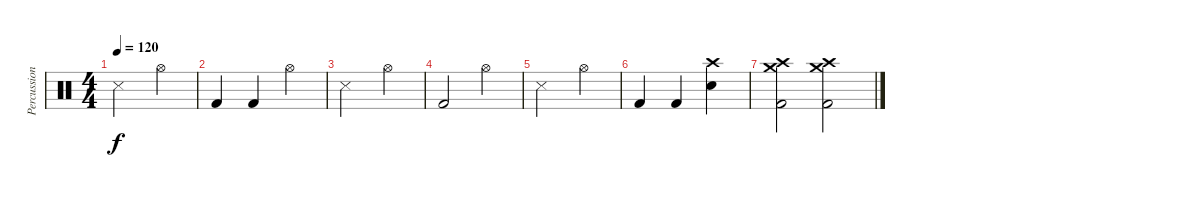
\track ("Percussion" "Percussion") {instrument percussion}
\staff {score}
\articulation defaults
\ts (4 4)
\tempo 120
\clef neutral
\ks c "Snare (side stick) 3".2{dy f} "Hi-Hat (open)".4
|
"Kick (hit) 2".4 "Kick (hit) 2".4 "Hi-Hat (open)".4 |
"Snare (side stick) 3".2 "Hi-Hat (open)".4 |
"Kick (hit) 2".2 "Hi-Hat (open)".4 |
"Snare (side stick) 3".2 "Hi-Hat (open)".4 |
"Kick (hit) 2".4 "Kick (hit) 2".4 ("Snare (hit) 2" "Crash high (hit)").4 |
("Kick (hit) 2" "Crash medium (hit)" "Crash high (hit)").2 ("Kick (hit) 2" "Crash medium (hit)" "Crash high (hit)").2
